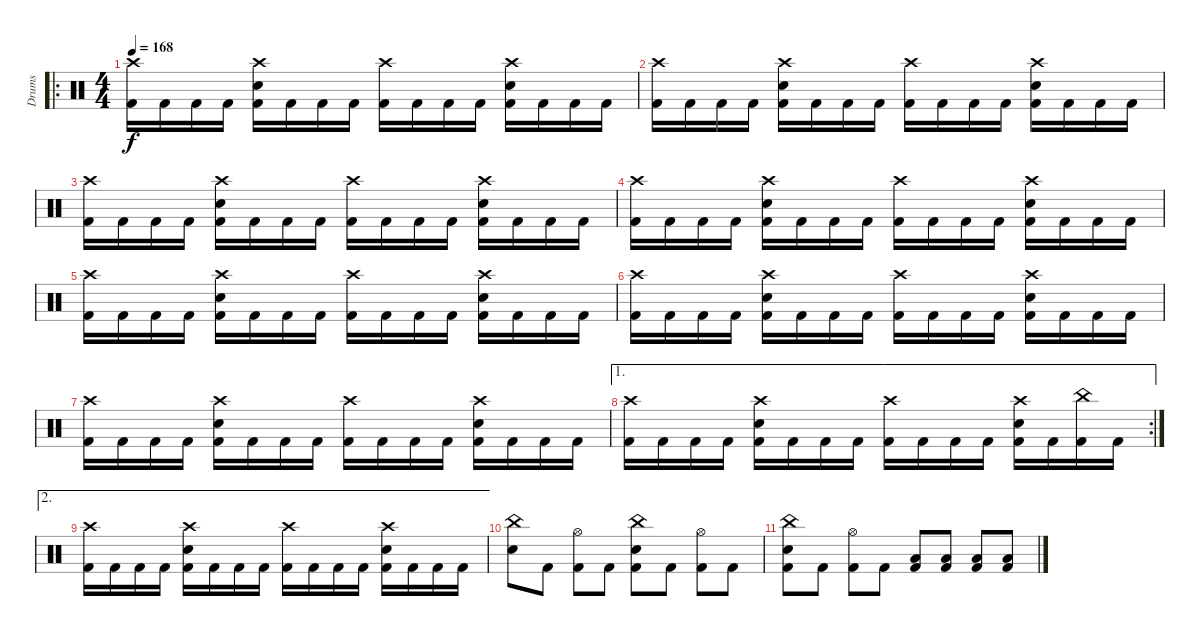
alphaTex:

\track ("Drums" "Drums") {instrument percussion}
\staff {score}
\articulation defaults
\ro
\ts (4 4)
\tempo 168
\clef neutral
\ks c
("Crash high (hit)" "Kick (hit) 2").16{dy f} "Kick (hit) 2".16 "Kick (hit) 2".16 "Kick (hit) 2".16 ("Crash high (hit)" "Snare (hit) 2" "Kick (hit) 2").16 "Kick (hit) 2".16 "Kick (hit) 2".16 "Kick (hit) 2".16 ("Crash high (hit)" "Kick (hit) 2").16 "Kick (hit) 2".16 "Kick (hit) 2".16 "Kick (hit) 2".16 ("Crash high (hit)" "Snare (hit) 2" "Kick (hit) 2").16 "Kick (hit) 2".16 "Kick (hit) 2".16 "Kick (hit) 2".16 |
("Crash high (hit)" "Kick (hit) 2").16 "Kick (hit) 2".16 "Kick (hit) 2".16 "Kick (hit) 2".16 ("Crash high (hit)" "Snare (hit) 2" "Kick (hit) 2").16 "Kick (hit) 2".16 "Kick (hit) 2".16 "Kick (hit) 2".16 ("Crash high (hit)" "Kick (hit) 2").16 "Kick (hit) 2".16 "Kick (hit) 2".16 "Kick (hit) 2".16 ("Crash high (hit)" "Snare (hit) 2" "Kick (hit) 2").16 "Kick (hit) 2".16 "Kick (hit) 2".16 "Kick (hit) 2".16 |
("Crash high (hit)" "Kick (hit) 2").16 "Kick (hit) 2".16 "Kick (hit) 2".16 "Kick (hit) 2".16 ("Crash high (hit)" "Snare (hit) 2" "Kick (hit) 2").16 "Kick (hit) 2".16 "Kick (hit) 2".16 "Kick (hit) 2".16 ("Crash high (hit)" "Kick (hit) 2").16 "Kick (hit) 2".16 "Kick (hit) 2".16 "Kick (hit) 2".16 ("Crash high (hit)" "Snare (hit) 2" "Kick (hit) 2").16 "Kick (hit) 2".16 "Kick (hit) 2".16 "Kick (hit) 2".16 |
("Crash high (hit)" "Kick (hit) 2").16 "Kick (hit) 2".16 "Kick (hit) 2".16 "Kick (hit) 2".16 ("Crash high (hit)" "Snare (hit) 2" "Kick (hit) 2").16 "Kick (hit) 2".16 "Kick (hit) 2".16 "Kick (hit) 2".16 ("Crash high (hit)" "Kick (hit) 2").16 "Kick (hit) 2".16 "Kick (hit) 2".16 "Kick (hit) 2".16 ("Crash high (hit)" "Snare (hit) 2" "Kick (hit) 2").16 "Kick (hit) 2".16 "Kick (hit) 2".16 "Kick (hit) 2".16 |
("Crash high (hit)" "Kick (hit) 2").16 "Kick (hit) 2".16 "Kick (hit) 2".16 "Kick (hit) 2".16 ("Crash high (hit)" "Snare (hit) 2" "Kick (hit) 2").16 "Kick (hit) 2".16 "Kick (hit) 2".16 "Kick (hit) 2".16 ("Crash high (hit)" "Kick (hit) 2").16 "Kick (hit) 2".16 "Kick (hit) 2".16 "Kick (hit) 2".16 ("Crash high (hit)" "Snare (hit) 2" "Kick (hit) 2").16 "Kick (hit) 2".16 "Kick (hit) 2".16 "Kick (hit) 2".16 |
("Crash high (hit)" "Kick (hit) 2").16 "Kick (hit) 2".16 "Kick (hit) 2".16 "Kick (hit) 2".16 ("Crash high (hit)" "Snare (hit) 2" "Kick (hit) 2").16 "Kick (hit) 2".16 "Kick (hit) 2".16 "Kick (hit) 2".16 ("Crash high (hit)" "Kick (hit) 2").16 "Kick (hit) 2".16 "Kick (hit) 2".16 "Kick (hit) 2".16 ("Crash high (hit)" "Snare (hit) 2" "Kick (hit) 2").16 "Kick (hit) 2".16 "Kick (hit) 2".16 "Kick (hit) 2".16 |
("Crash high (hit)" "Kick (hit) 2").16 "Kick (hit) 2".16 "Kick (hit) 2".16 "Kick (hit) 2".16 ("Crash high (hit)" "Snare (hit) 2" "Kick (hit) 2").16 "Kick (hit) 2".16 "Kick (hit) 2".16 "Kick (hit) 2".16 ("Crash high (hit)" "Kick (hit) 2").16 "Kick (hit) 2".16 "Kick (hit) 2".16 "Kick (hit) 2".16 ("Crash high (hit)" "Snare (hit) 2" "Kick (hit) 2").16 "Kick (hit) 2".16 "Kick (hit) 2".16 "Kick (hit) 2".16 |
\ae 1
\rc 2
("Crash high (hit)" "Kick (hit) 2").16 "Kick (hit) 2".16 "Kick (hit) 2".16 "Kick (hit) 2".16 ("Crash high (hit)" "Snare (hit) 2" "Kick (hit) 2").16 "Kick (hit) 2".16 "Kick (hit) 2".16 "Kick (hit) 2".16 ("Crash high (hit)" "Kick (hit) 2").16 "Kick (hit) 2".16 "Kick (hit) 2".16 "Kick (hit) 2".16 ("Crash high (hit)" "Snare (hit) 2" "Kick (hit) 2").16 "Kick (hit) 2".16 ("China (hit)" "Kick (hit) 2").16 "Kick (hit) 2".16 |
\ae 2
("Crash high (hit)" "Kick (hit) 2").16 "Kick (hit) 2".16 "Kick (hit) 2".16 "Kick (hit) 2".16 ("Crash high (hit)" "Snare (hit) 2" "Kick (hit) 2").16 "Kick (hit) 2".16 "Kick (hit) 2".16 "Kick (hit) 2".16 ("Crash high (hit)" "Kick (hit) 2").16 "Kick (hit) 2".16 "Kick (hit) 2".16 "Kick (hit) 2".16 ("Crash high (hit)" "Snare (hit) 2" "Kick (hit) 2").16 "Kick (hit) 2".16 "Kick (hit) 2".16 "Kick (hit) 2".16 |
("China (hit)" "Snare (hit) 2").8 "Kick (hit) 2".8 ("Hi-Hat (open)" "Kick (hit) 2").8 "Kick (hit) 2".8 ("China (hit)" "Snare (hit) 2" "Kick (hit) 2").8 "Kick (hit) 2".8 ("Hi-Hat (open)" "Kick (hit) 2").8 "Kick (hit) 2".8 |
("China (hit)" "Snare (hit) 2" "Kick (hit) 2").8 "Kick (hit) 2".8 ("Hi-Hat (open)" "Kick (hit) 2").8 "Kick (hit) 2".8 ("Low Floor Tom (hit)" "Kick (hit) 2").8 ("Low Floor Tom (hit)" "Kick (hit) 2").8 ("Low Floor Tom (hit)" "Kick (hit) 2").8 ("Low Floor Tom (hit)" "Kick (hit) 2").8
